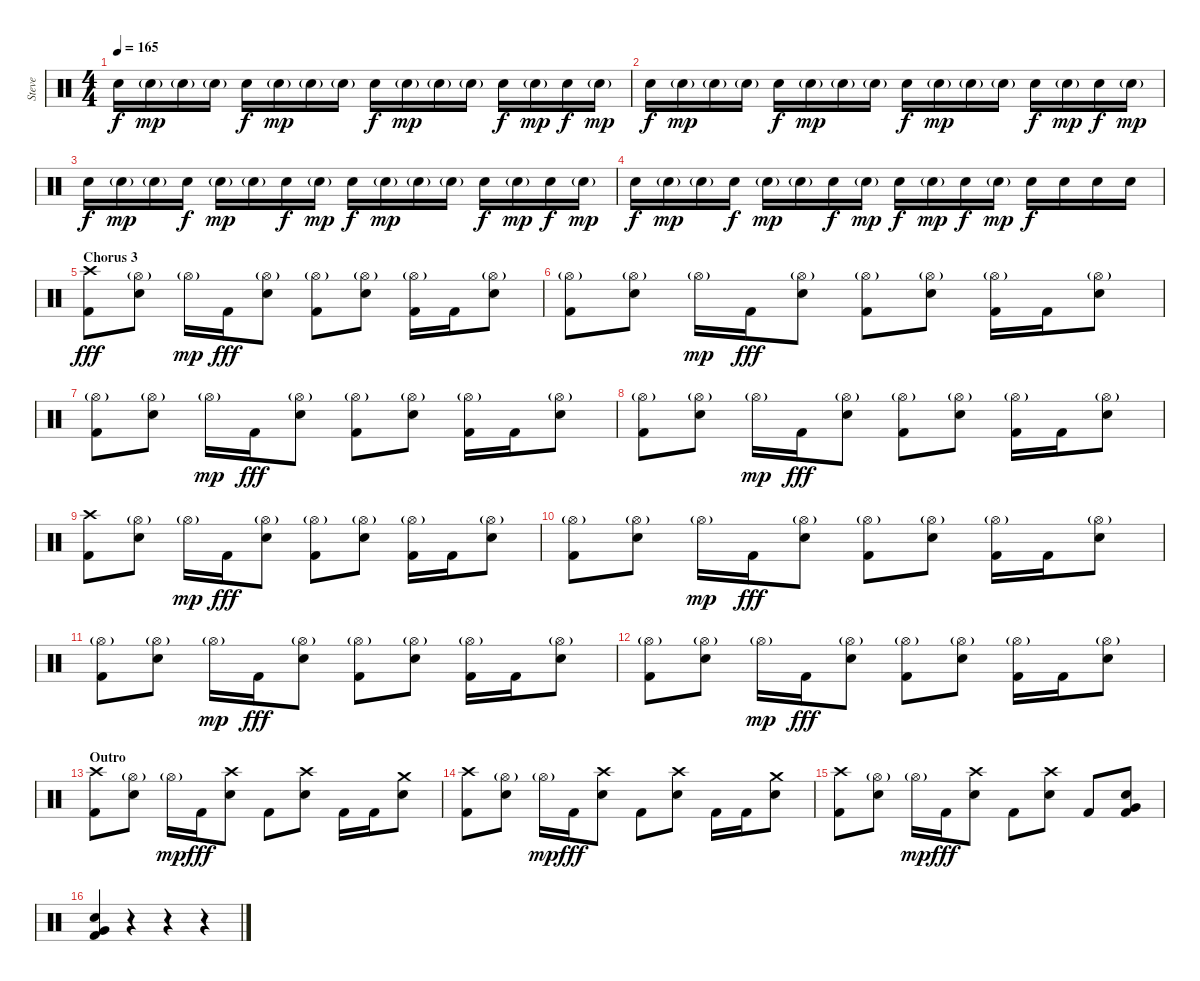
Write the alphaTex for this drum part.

\track ("Steve" "Steve") {instrument percussion}
\staff {score}
\articulation defaults
\ts (4 4)
\tempo 165
\clef neutral
\ks c "Electric Snare (hit)".16{dy f} "Electric Snare (hit)"{g}.16{dy mp} "Electric Snare (hit)"{g}.16 "Electric Snare (hit)"{g}.16 "Electric Snare (hit)".16{dy f} "Electric Snare (hit)"{g}.16{dy mp} "Electric Snare (hit)"{g}.16 "Electric Snare (hit)"{g}.16 "Electric Snare (hit)".16{dy f} "Electric Snare (hit)"{g}.16{dy mp} "Electric Snare (hit)"{g}.16 "Electric Snare (hit)"{g}.16 "Electric Snare (hit)".16{dy f} "Electric Snare (hit)"{g}.16{dy mp} "Electric Snare (hit)".16{dy f} "Electric Snare (hit)"{g}.16{dy mp}
|
"Electric Snare (hit)".16{dy f} "Electric Snare (hit)"{g}.16{dy mp} "Electric Snare (hit)"{g}.16 "Electric Snare (hit)"{g}.16 "Electric Snare (hit)".16{dy f} "Electric Snare (hit)"{g}.16{dy mp} "Electric Snare (hit)"{g}.16 "Electric Snare (hit)"{g}.16 "Electric Snare (hit)".16{dy f} "Electric Snare (hit)"{g}.16{dy mp} "Electric Snare (hit)"{g}.16 "Electric Snare (hit)"{g}.16 "Electric Snare (hit)".16{dy f} "Electric Snare (hit)"{g}.16{dy mp} "Electric Snare (hit)".16{dy f} "Electric Snare (hit)"{g}.16{dy mp} |
"Electric Snare (hit)".16{dy f} "Electric Snare (hit)"{g}.16{dy mp} "Electric Snare (hit)"{g}.16 "Electric Snare (hit)".16{dy f} "Electric Snare (hit)"{g}.16{dy mp} "Electric Snare (hit)"{g}.16 "Electric Snare (hit)".16{dy f} "Electric Snare (hit)"{g}.16{dy mp} "Electric Snare (hit)".16{dy f} "Electric Snare (hit)"{g}.16{dy mp} "Electric Snare (hit)"{g}.16 "Electric Snare (hit)"{g}.16 "Electric Snare (hit)".16{dy f} "Electric Snare (hit)"{g}.16{dy mp} "Electric Snare (hit)".16{dy f} "Electric Snare (hit)"{g}.16{dy mp} |
"Electric Snare (hit)".16{dy f} "Electric Snare (hit)"{g}.16{dy mp} "Electric Snare (hit)"{g}.16 "Electric Snare (hit)".16{dy f} "Electric Snare (hit)"{g}.16{dy mp} "Electric Snare (hit)"{g}.16 "Electric Snare (hit)".16{dy f} "Electric Snare (hit)"{g}.16{dy mp} "Electric Snare (hit)".16{dy f} "Electric Snare (hit)"{g}.16{dy mp} "Electric Snare (hit)".16{dy f} "Electric Snare (hit)"{g}.16{dy mp} "Electric Snare (hit)".16{dy f} "Electric Snare (hit)".16 "Electric Snare (hit)".16 "Electric Snare (hit)".16 |
\section ("" "Chorus 3")
("Crash high (hit)" "Kick (hit) 2").8{dy fff} ("Hi-Hat (open)"{g} "Electric Snare (hit)").8 "Hi-Hat (open)"{g}.16{dy mp} "Kick (hit) 2".16{dy fff} ("Hi-Hat (open)"{g} "Electric Snare (hit)").8 ("Hi-Hat (open)"{g} "Kick (hit) 2").8 ("Hi-Hat (open)"{g} "Electric Snare (hit)").8 ("Hi-Hat (open)"{g} "Kick (hit) 2").16 "Kick (hit) 2".16 ("Hi-Hat (open)"{g} "Electric Snare (hit)").8 |
("Hi-Hat (open)"{g} "Kick (hit) 2").8 ("Hi-Hat (open)"{g} "Electric Snare (hit)").8 "Hi-Hat (open)"{g}.16{dy mp} "Kick (hit) 2".16{dy fff} ("Hi-Hat (open)"{g} "Electric Snare (hit)").8 ("Hi-Hat (open)"{g} "Kick (hit) 2").8 ("Hi-Hat (open)"{g} "Electric Snare (hit)").8 ("Hi-Hat (open)"{g} "Kick (hit) 2").16 "Kick (hit) 2".16 ("Hi-Hat (open)"{g} "Electric Snare (hit)").8 |
("Hi-Hat (open)"{g} "Kick (hit) 2").8 ("Hi-Hat (open)"{g} "Electric Snare (hit)").8 "Hi-Hat (open)"{g}.16{dy mp} "Kick (hit) 2".16{dy fff} ("Hi-Hat (open)"{g} "Electric Snare (hit)").8 ("Hi-Hat (open)"{g} "Kick (hit) 2").8 ("Hi-Hat (open)"{g} "Electric Snare (hit)").8 ("Hi-Hat (open)"{g} "Kick (hit) 2").16 "Kick (hit) 2".16 ("Hi-Hat (open)"{g} "Electric Snare (hit)").8 |
("Hi-Hat (open)"{g} "Kick (hit) 2").8 ("Hi-Hat (open)"{g} "Electric Snare (hit)").8 "Hi-Hat (open)"{g}.16{dy mp} "Kick (hit) 2".16{dy fff} ("Hi-Hat (open)"{g} "Electric Snare (hit)").8 ("Hi-Hat (open)"{g} "Kick (hit) 2").8 ("Hi-Hat (open)"{g} "Electric Snare (hit)").8 ("Hi-Hat (open)"{g} "Kick (hit) 2").16 "Kick (hit) 2".16 ("Hi-Hat (open)"{g} "Electric Snare (hit)").8 |
("Crash high (hit)" "Kick (hit) 2").8 ("Hi-Hat (open)"{g} "Electric Snare (hit)").8 "Hi-Hat (open)"{g}.16{dy mp} "Kick (hit) 2".16{dy fff} ("Hi-Hat (open)"{g} "Electric Snare (hit)").8 ("Hi-Hat (open)"{g} "Kick (hit) 2").8 ("Hi-Hat (open)"{g} "Electric Snare (hit)").8 ("Hi-Hat (open)"{g} "Kick (hit) 2").16 "Kick (hit) 2".16 ("Hi-Hat (open)"{g} "Electric Snare (hit)").8 |
("Hi-Hat (open)"{g} "Kick (hit) 2").8 ("Hi-Hat (open)"{g} "Electric Snare (hit)").8 "Hi-Hat (open)"{g}.16{dy mp} "Kick (hit) 2".16{dy fff} ("Hi-Hat (open)"{g} "Electric Snare (hit)").8 ("Hi-Hat (open)"{g} "Kick (hit) 2").8 ("Hi-Hat (open)"{g} "Electric Snare (hit)").8 ("Hi-Hat (open)"{g} "Kick (hit) 2").16 "Kick (hit) 2".16 ("Hi-Hat (open)"{g} "Electric Snare (hit)").8 |
("Hi-Hat (open)"{g} "Kick (hit) 2").8 ("Hi-Hat (open)"{g} "Electric Snare (hit)").8 "Hi-Hat (open)"{g}.16{dy mp} "Kick (hit) 2".16{dy fff} ("Hi-Hat (open)"{g} "Electric Snare (hit)").8 ("Hi-Hat (open)"{g} "Kick (hit) 2").8 ("Hi-Hat (open)"{g} "Electric Snare (hit)").8 ("Hi-Hat (open)"{g} "Kick (hit) 2").16 "Kick (hit) 2".16 ("Hi-Hat (open)"{g} "Electric Snare (hit)").8 |
("Hi-Hat (open)"{g} "Kick (hit) 2").8 ("Hi-Hat (open)"{g} "Electric Snare (hit)").8 "Hi-Hat (open)"{g}.16{dy mp} "Kick (hit) 2".16{dy fff} ("Hi-Hat (open)"{g} "Electric Snare (hit)").8 ("Hi-Hat (open)"{g} "Kick (hit) 2").8 ("Hi-Hat (open)"{g} "Electric Snare (hit)").8 ("Hi-Hat (open)"{g} "Kick (hit) 2").16 "Kick (hit) 2".16 ("Hi-Hat (open)"{g} "Electric Snare (hit)").8 |
\section ("" "Outro")
("Crash high (hit)" "Kick (hit) 2").8 ("Hi-Hat (open)"{g} "Electric Snare (hit)").8 "Hi-Hat (open)"{g}.16{dy mp} "Kick (hit) 2".16{dy fff} ("Crash high (hit)" "Electric Snare (hit)").8 "Kick (hit) 2".8 ("Crash high (hit)" "Electric Snare (hit)").8 "Kick (hit) 2".16 "Kick (hit) 2".16 ("Crash medium (hit)" "Electric Snare (hit)").8 |
("Crash high (hit)" "Kick (hit) 2").8 ("Hi-Hat (open)"{g} "Electric Snare (hit)").8 "Hi-Hat (open)"{g}.16{dy mp} "Kick (hit) 2".16{dy fff} ("Crash high (hit)" "Electric Snare (hit)").8 "Kick (hit) 2".8 ("Crash high (hit)" "Electric Snare (hit)").8 "Kick (hit) 2".16 "Kick (hit) 2".16 ("Crash medium (hit)" "Electric Snare (hit)").8 |
("Crash high (hit)" "Kick (hit) 2").8 ("Hi-Hat (open)"{g} "Electric Snare (hit)").8 "Hi-Hat (open)"{g}.16{dy mp} "Kick (hit) 2".16{dy fff} ("Crash high (hit)" "Electric Snare (hit)").8 "Kick (hit) 2".8 ("Crash high (hit)" "Electric Snare (hit)").8 "Kick (hit) 2".8 ("Very Low Tom (hit)" "Electric Snare (hit)" "Kick (hit) 2").8 |
("Very Low Tom (hit)" "Electric Snare (hit)" "Kick (hit) 2").4 r.4 r.4 r.4
